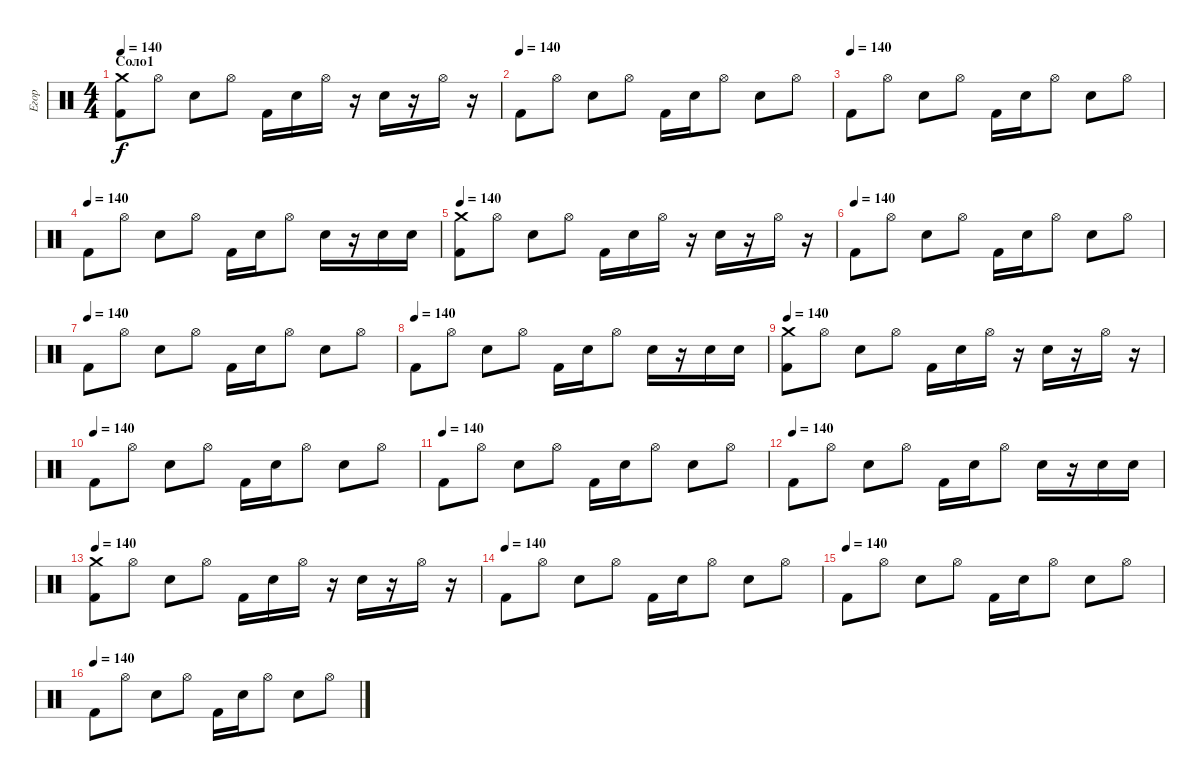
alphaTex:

\track ("Егор" "Егор") {instrument percussion}
\staff {score}
\articulation defaults
\ts (4 4)
\section ("" "Соло1")
\tempo 140
\clef neutral
\ks c
("Crash medium (hit)" "Kick (hit) 2").8{dy f} "Hi-Hat (open)".8 "Snare (hit) 2".8 "Hi-Hat (open)".8 "Kick (hit) 2".16 "Snare (hit) 2".16 "Hi-Hat (open)".16 r.16 "Snare (hit) 2".16 r.16 "Hi-Hat (open)".16 r.16 |
\tempo (140)
"Kick (hit) 2".8 "Hi-Hat (open)".8 "Snare (hit) 2".8 "Hi-Hat (open)".8 "Kick (hit) 2".16 "Snare (hit) 2".16 "Hi-Hat (open)".8 "Snare (hit) 2".8 "Hi-Hat (open)".8 |
\tempo (140)
"Kick (hit) 2".8 "Hi-Hat (open)".8 "Snare (hit) 2".8 "Hi-Hat (open)".8 "Kick (hit) 2".16 "Snare (hit) 2".16 "Hi-Hat (open)".8 "Snare (hit) 2".8 "Hi-Hat (open)".8 |
\tempo (140)
"Kick (hit) 2".8 "Hi-Hat (open)".8 "Snare (hit) 2".8 "Hi-Hat (open)".8 "Kick (hit) 2".16 "Snare (hit) 2".16 "Hi-Hat (open)".8 "Snare (hit) 2".16 r.16 "Snare (hit) 2".16 "Snare (hit) 2".16 |
\tempo 140
("Crash medium (hit)" "Kick (hit) 2").8 "Hi-Hat (open)".8 "Snare (hit) 2".8 "Hi-Hat (open)".8 "Kick (hit) 2".16 "Snare (hit) 2".16 "Hi-Hat (open)".16 r.16 "Snare (hit) 2".16 r.16 "Hi-Hat (open)".16 r.16 |
\tempo (140)
"Kick (hit) 2".8 "Hi-Hat (open)".8 "Snare (hit) 2".8 "Hi-Hat (open)".8 "Kick (hit) 2".16 "Snare (hit) 2".16 "Hi-Hat (open)".8 "Snare (hit) 2".8 "Hi-Hat (open)".8 |
\tempo (140)
"Kick (hit) 2".8 "Hi-Hat (open)".8 "Snare (hit) 2".8 "Hi-Hat (open)".8 "Kick (hit) 2".16 "Snare (hit) 2".16 "Hi-Hat (open)".8 "Snare (hit) 2".8 "Hi-Hat (open)".8 |
\tempo (140)
"Kick (hit) 2".8 "Hi-Hat (open)".8 "Snare (hit) 2".8 "Hi-Hat (open)".8 "Kick (hit) 2".16 "Snare (hit) 2".16 "Hi-Hat (open)".8 "Snare (hit) 2".16 r.16 "Snare (hit) 2".16 "Snare (hit) 2".16 |
\tempo 140
("Crash medium (hit)" "Kick (hit) 2").8 "Hi-Hat (open)".8 "Snare (hit) 2".8 "Hi-Hat (open)".8 "Kick (hit) 2".16 "Snare (hit) 2".16 "Hi-Hat (open)".16 r.16 "Snare (hit) 2".16 r.16 "Hi-Hat (open)".16 r.16 |
\tempo (140)
"Kick (hit) 2".8 "Hi-Hat (open)".8 "Snare (hit) 2".8 "Hi-Hat (open)".8 "Kick (hit) 2".16 "Snare (hit) 2".16 "Hi-Hat (open)".8 "Snare (hit) 2".8 "Hi-Hat (open)".8 |
\tempo (140)
"Kick (hit) 2".8 "Hi-Hat (open)".8 "Snare (hit) 2".8 "Hi-Hat (open)".8 "Kick (hit) 2".16 "Snare (hit) 2".16 "Hi-Hat (open)".8 "Snare (hit) 2".8 "Hi-Hat (open)".8 |
\tempo (140)
"Kick (hit) 2".8 "Hi-Hat (open)".8 "Snare (hit) 2".8 "Hi-Hat (open)".8 "Kick (hit) 2".16 "Snare (hit) 2".16 "Hi-Hat (open)".8 "Snare (hit) 2".16 r.16 "Snare (hit) 2".16 "Snare (hit) 2".16 |
\tempo 140
("Crash medium (hit)" "Kick (hit) 2").8 "Hi-Hat (open)".8 "Snare (hit) 2".8 "Hi-Hat (open)".8 "Kick (hit) 2".16 "Snare (hit) 2".16 "Hi-Hat (open)".16 r.16 "Snare (hit) 2".16 r.16 "Hi-Hat (open)".16 r.16 |
\tempo (140)
"Kick (hit) 2".8 "Hi-Hat (open)".8 "Snare (hit) 2".8 "Hi-Hat (open)".8 "Kick (hit) 2".16 "Snare (hit) 2".16 "Hi-Hat (open)".8 "Snare (hit) 2".8 "Hi-Hat (open)".8 |
\tempo (140)
"Kick (hit) 2".8 "Hi-Hat (open)".8 "Snare (hit) 2".8 "Hi-Hat (open)".8 "Kick (hit) 2".16 "Snare (hit) 2".16 "Hi-Hat (open)".8 "Snare (hit) 2".8 "Hi-Hat (open)".8 |
\tempo (140)
"Kick (hit) 2".8 "Hi-Hat (open)".8 "Snare (hit) 2".8 "Hi-Hat (open)".8 "Kick (hit) 2".16 "Snare (hit) 2".16 "Hi-Hat (open)".8 "Snare (hit) 2".8 "Hi-Hat (open)".8
